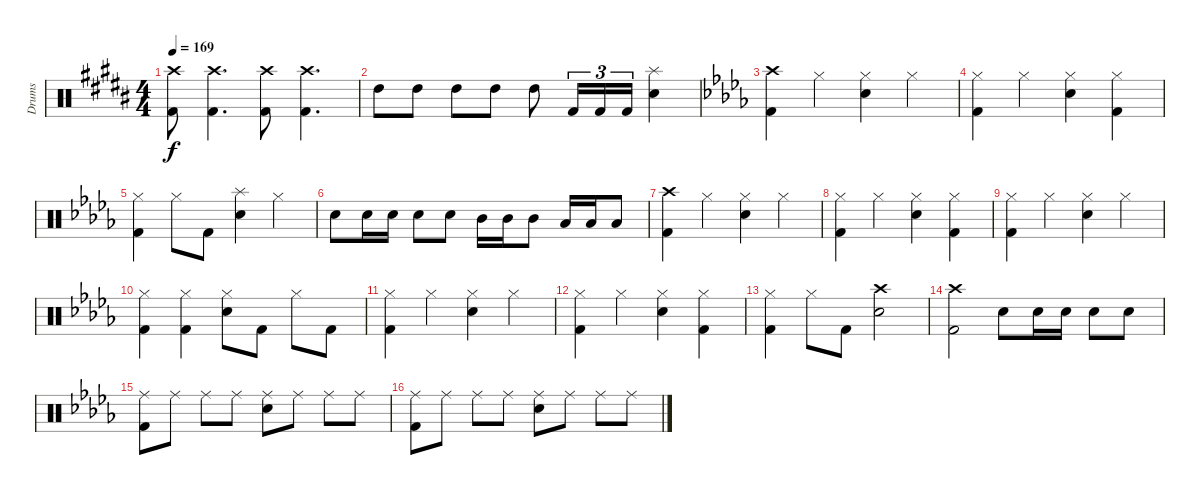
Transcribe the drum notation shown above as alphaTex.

\track ("Drums" "Drums") {instrument percussion}
\staff {score}
\articulation defaults
\ts (4 4)
\tempo 169
\clef neutral
\ks b
("Crash high (hit)" "Kick (hit) 2").8{dy f} ("Crash high (hit)" "Kick (hit) 2").4{d} ("Crash high (hit)" "Kick (hit) 2").8 ("Crash high (hit)" "Kick (hit) 2").4{d} |
"High Tom (hit)".8 "High Tom (hit)".8 "High Tom (hit)".8 "High Tom (hit)".8 "High Tom (hit)".8 "Kick (hit) 2".16{tu (3 2)} "Kick (hit) 2".16{tu (3 2)} "Kick (hit) 2".16{tu (3 2)} ("Splash (hit)" "Snare (hit) 2").4 |
\ks db
("Crash high (hit)" "Kick (hit) 2").4 "Hi-Hat (closed)".4 ("Hi-Hat (closed)" "Snare (hit) 2").4 "Hi-Hat (closed)".4 |
("Hi-Hat (closed)" "Kick (hit) 2").4 "Hi-Hat (closed)".4 ("Hi-Hat (closed)" "Snare (hit) 2").4 ("Hi-Hat (closed)" "Kick (hit) 2").4 |
("Hi-Hat (closed)" "Kick (hit) 2").4 "Hi-Hat (closed)".8 "Kick (hit) 2".8 ("Splash (hit)" "Snare (hit) 2").4 "Hi-Hat (closed)".4 |
"Snare (hit) 2".8 "Snare (hit) 2".16 "Snare (hit) 2".16 "Snare (hit) 2".8 "Snare (hit) 2".8 "Mid Tom (hit)".16 "Mid Tom (hit)".16 "Mid Tom (hit)".8 "Low Tom (hit)".16 "Low Tom (hit)".16 "Low Tom (hit)".8 |
("Crash high (hit)" "Kick (hit) 2").4 "Hi-Hat (closed)".4 ("Hi-Hat (closed)" "Snare (hit) 2").4 "Hi-Hat (closed)".4 |
("Hi-Hat (closed)" "Kick (hit) 2").4 "Hi-Hat (closed)".4 ("Hi-Hat (closed)" "Snare (hit) 2").4 ("Hi-Hat (closed)" "Kick (hit) 2").4 |
("Hi-Hat (closed)" "Kick (hit) 2").4 "Hi-Hat (closed)".4 ("Hi-Hat (closed)" "Snare (hit) 2").4 "Hi-Hat (closed)".4 |
("Hi-Hat (closed)" "Kick (hit) 2").4 ("Hi-Hat (closed)" "Kick (hit) 2").4 ("Hi-Hat (closed)" "Snare (hit) 2").8 "Kick (hit) 2".8 "Hi-Hat (closed)".8 "Kick (hit) 2".8 |
("Hi-Hat (closed)" "Kick (hit) 2").4 "Hi-Hat (closed)".4 ("Hi-Hat (closed)" "Snare (hit) 2").4 "Hi-Hat (closed)".4 |
("Hi-Hat (closed)" "Kick (hit) 2").4 "Hi-Hat (closed)".4 ("Hi-Hat (closed)" "Snare (hit) 2").4 ("Hi-Hat (closed)" "Kick (hit) 2").4 |
("Hi-Hat (closed)" "Kick (hit) 2").4 "Hi-Hat (closed)".8 "Kick (hit) 2".8 ("Crash high (hit)" "Snare (hit) 2").2 |
("Crash high (hit)" "Kick (hit) 2").2 "Snare (hit) 2".8 "Snare (hit) 2".16 "Snare (hit) 2".16 "Snare (hit) 2".8 "Snare (hit) 2".8 |
("Ride (middle)" "Kick (hit) 2").8 "Ride (middle)".8 "Ride (middle)".8 "Ride (middle)".8 ("Ride (middle)" "Snare (hit) 2").8 "Ride (middle)".8 "Ride (middle)".8 "Ride (middle)".8 |
("Ride (middle)" "Kick (hit) 2").8 "Ride (middle)".8 "Ride (middle)".8 "Ride (middle)".8 ("Ride (middle)" "Snare (hit) 2").8 "Ride (middle)".8 "Ride (middle)".8 "Ride (middle)".8
